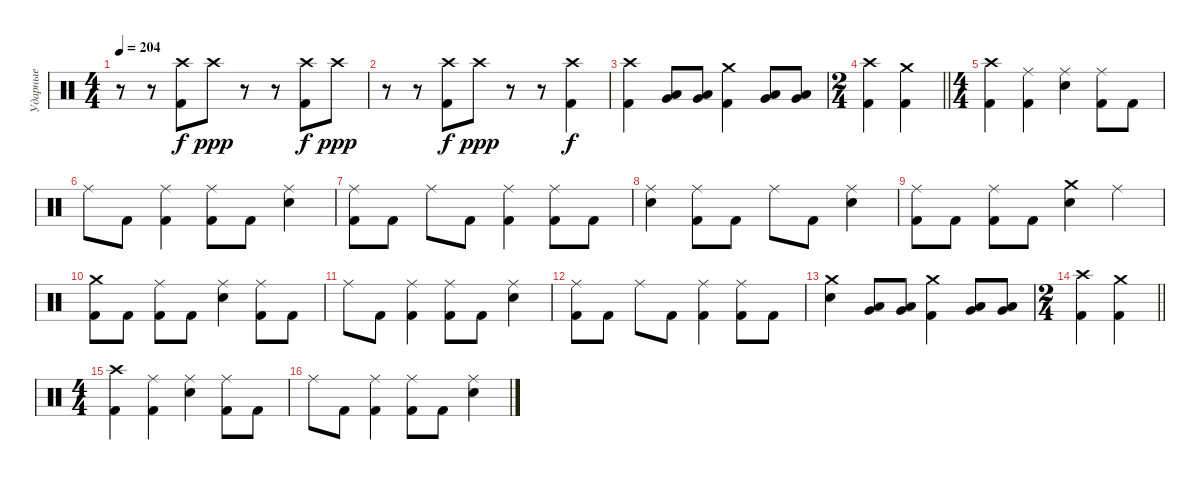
\track ("Ударные" "Ударные") {instrument percussion}
\staff {score}
\articulation defaults
\ts (4 4)
\tempo 204
\clef neutral
\ks c
r.8{dy ppp} r.8 ("Crash high (hit)" "Kick (hit) 2").8{dy f} "Crash high (hit)".8{dy ppp} r.8 r.8 ("Crash high (hit)" "Kick (hit) 2").8{dy f} "Crash high (hit)".8{dy ppp} |
r.8 r.8 ("Crash high (hit)" "Kick (hit) 2").8{dy f} "Crash high (hit)".8{dy ppp} r.8 r.8 ("Crash high (hit)" "Kick (hit) 2").4{dy f} |
("Crash high (hit)" "Kick (hit) 2").4 ("Low Tom (hit)" "Very Low Tom (hit)").8 ("Low Tom (hit)" "Very Low Tom (hit)").8 ("Crash medium (hit)" "Kick (hit) 2").4 ("Low Tom (hit)" "Very Low Tom (hit)").8 ("Low Tom (hit)" "Very Low Tom (hit)").8 |
\ts (2 4)
\barLineRight lightlight
("Crash high (hit)" "Kick (hit) 2").4 ("Crash medium (hit)" "Kick (hit) 2").4 |
\ts (4 4)
("Crash high (hit)" "Kick (hit) 2").4 ("Ride (middle)" "Kick (hit) 2").4 ("Ride (middle)" "Snare (hit) 2").4 ("Ride (middle)" "Kick (hit) 2").8 "Kick (hit) 2".8 |
"Ride (middle)".8 "Kick (hit) 2".8 ("Ride (middle)" "Kick (hit) 2").4 ("Ride (middle)" "Kick (hit) 2").8 "Kick (hit) 2".8 ("Ride (middle)" "Snare (hit) 2").4 |
("Ride (middle)" "Kick (hit) 2").8 "Kick (hit) 2".8 "Ride (middle)".8 "Kick (hit) 2".8 ("Ride (middle)" "Kick (hit) 2").4 ("Ride (middle)" "Kick (hit) 2").8 "Kick (hit) 2".8 |
("Ride (middle)" "Snare (hit) 2").4 ("Ride (middle)" "Kick (hit) 2").8 "Kick (hit) 2".8 "Ride (middle)".8 "Kick (hit) 2".8 ("Ride (middle)" "Snare (hit) 2").4 |
("Ride (middle)" "Kick (hit) 2").8 "Kick (hit) 2".8 ("Ride (middle)" "Kick (hit) 2").8 "Kick (hit) 2".8 ("Crash medium (hit)" "Snare (hit) 2").4 "Ride (middle)".4 |
("Crash medium (hit)" "Kick (hit) 2").8 "Kick (hit) 2".8 ("Ride (middle)" "Kick (hit) 2").8 "Kick (hit) 2".8 ("Ride (middle)" "Snare (hit) 2").4 ("Ride (middle)" "Kick (hit) 2").8 "Kick (hit) 2".8 |
"Ride (middle)".8 "Kick (hit) 2".8 ("Ride (middle)" "Kick (hit) 2").4 ("Ride (middle)" "Kick (hit) 2").8 "Kick (hit) 2".8 ("Ride (middle)" "Snare (hit) 2").4 |
("Ride (middle)" "Kick (hit) 2").8 "Kick (hit) 2".8 "Ride (middle)".8 "Kick (hit) 2".8 ("Ride (middle)" "Kick (hit) 2").4 ("Ride (middle)" "Kick (hit) 2").8 "Kick (hit) 2".8 |
("Crash medium (hit)" "Snare (hit) 2").4 ("Low Tom (hit)" "Very Low Tom (hit)").8 ("Low Tom (hit)" "Very Low Tom (hit)").8 ("Crash medium (hit)" "Kick (hit) 2").4 ("Low Tom (hit)" "Very Low Tom (hit)").8 ("Low Tom (hit)" "Very Low Tom (hit)").8 |
\ts (2 4)
\barLineRight lightlight
("Crash high (hit)" "Kick (hit) 2").4 ("Crash medium (hit)" "Kick (hit) 2").4 |
\ts (4 4)
("Crash high (hit)" "Kick (hit) 2").4 ("Ride (middle)" "Kick (hit) 2").4 ("Ride (middle)" "Snare (hit) 2").4 ("Ride (middle)" "Kick (hit) 2").8 "Kick (hit) 2".8 |
"Ride (middle)".8 "Kick (hit) 2".8 ("Ride (middle)" "Kick (hit) 2").4 ("Ride (middle)" "Kick (hit) 2").8 "Kick (hit) 2".8 ("Ride (middle)" "Snare (hit) 2").4
